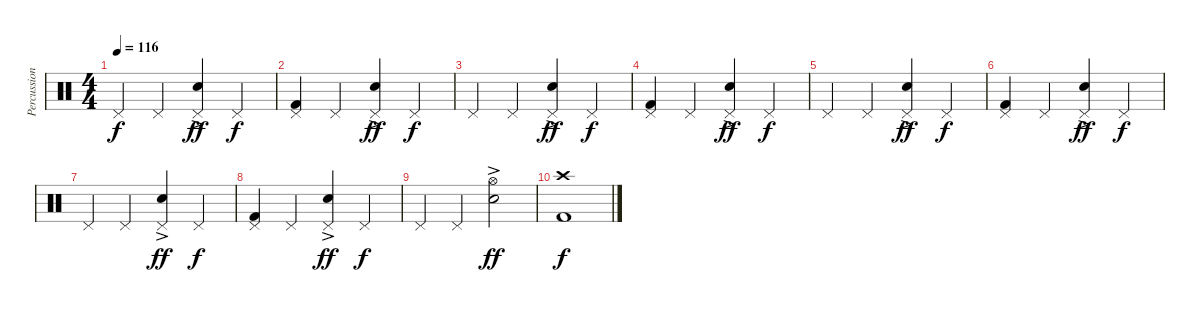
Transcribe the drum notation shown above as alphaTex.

\track ("Percussion" "Percussion") {instrument percussion}
\staff {score}
\articulation defaults
\ts (4 4)
\tempo 116
\clef neutral
\ks c "Pedal Hi-Hat (hit)".4{dy f} "Pedal Hi-Hat (hit)".4
("Pedal Hi-Hat (hit)" "Electric Snare (hit)"{ac}).4{dy ff} "Pedal Hi-Hat (hit)".4{dy f} |
("Pedal Hi-Hat (hit)" "Kick (hit) 2").4 "Pedal Hi-Hat (hit)".4 ("Pedal Hi-Hat (hit)" "Electric Snare (hit)"{ac}).4{dy ff} "Pedal Hi-Hat (hit)".4{dy f} |
"Pedal Hi-Hat (hit)".4 "Pedal Hi-Hat (hit)".4 ("Pedal Hi-Hat (hit)" "Electric Snare (hit)"{ac}).4{dy ff} "Pedal Hi-Hat (hit)".4{dy f} |
("Pedal Hi-Hat (hit)" "Kick (hit) 2").4 "Pedal Hi-Hat (hit)".4 ("Pedal Hi-Hat (hit)" "Electric Snare (hit)"{ac}).4{dy ff} "Pedal Hi-Hat (hit)".4{dy f} |
"Pedal Hi-Hat (hit)".4 "Pedal Hi-Hat (hit)".4 ("Pedal Hi-Hat (hit)" "Electric Snare (hit)"{ac}).4{dy ff} "Pedal Hi-Hat (hit)".4{dy f} |
("Pedal Hi-Hat (hit)" "Kick (hit) 2").4 "Pedal Hi-Hat (hit)".4 ("Pedal Hi-Hat (hit)" "Electric Snare (hit)"{ac}).4{dy ff} "Pedal Hi-Hat (hit)".4{dy f} |
"Pedal Hi-Hat (hit)".4 "Pedal Hi-Hat (hit)".4 ("Pedal Hi-Hat (hit)" "Electric Snare (hit)"{ac}).4{dy ff} "Pedal Hi-Hat (hit)".4{dy f} |
("Pedal Hi-Hat (hit)" "Kick (hit) 2").4 "Pedal Hi-Hat (hit)".4 ("Pedal Hi-Hat (hit)" "Electric Snare (hit)"{ac}).4{dy ff} "Pedal Hi-Hat (hit)".4{dy f} |
"Pedal Hi-Hat (hit)".4 "Pedal Hi-Hat (hit)".4 ("Hi-Hat (open)" "Electric Snare (hit)"{ac}).2{dy ff} |
("Crash high (hit)" "Kick (hit) 2").1{dy f}
